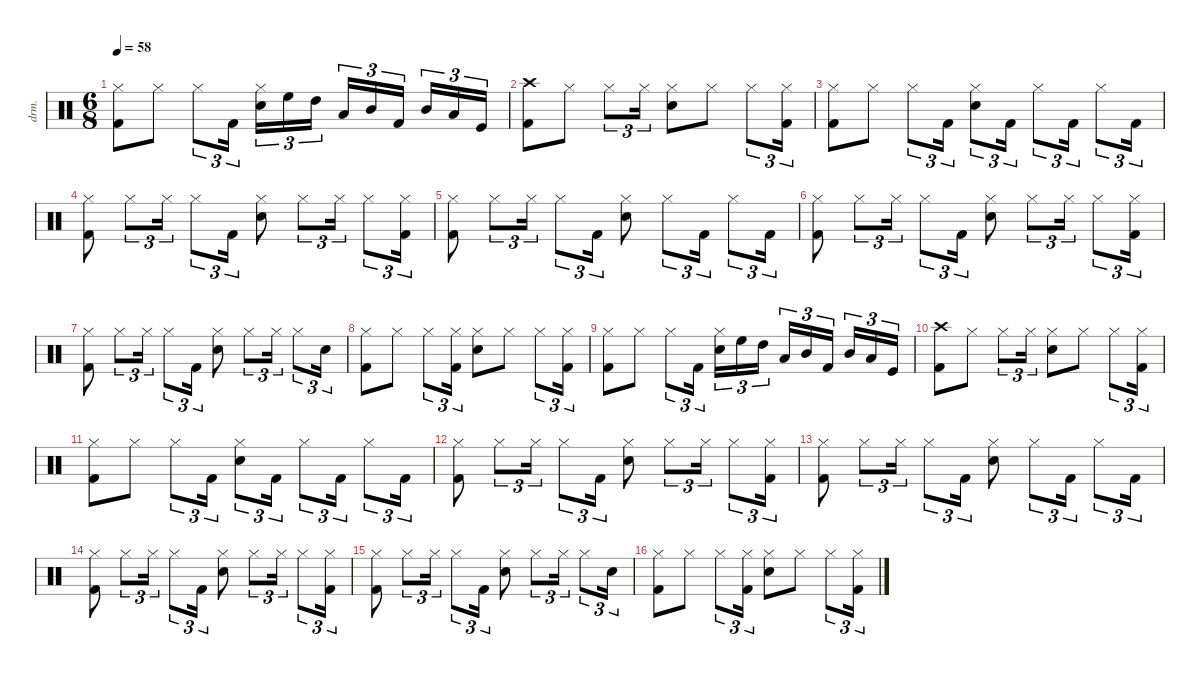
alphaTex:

\defaultSystemsLayout 4
\hideDynamics
\bracketExtendMode nobrackets
\otherSystemsTrackNameOrientation horizontal
\track ("Drums " "drm.") {instrument percussion}
\staff {score}
\articulation defaults
\ts (6 8)
\tempo 58
\clef neutral
\ks c
("Kick (hit) 2" "Hi-Hat (closed)").8{dy f beam Down} "Hi-Hat (closed)".8{dy mf beam Down} "Hi-Hat (closed)".8{tu (3 2) beam Down} "Kick (hit) 2".16{tu (3 2) beam Down} ("Snare (hit) 2" "Hi-Hat (closed)").16{tu (3 2) dy ff beam Down} "High Floor Tom (hit)".16{tu (3 2) beam Down} "High Tom (hit)".16{tu (3 2) dy mp beam Down} "Low Tom (hit)".16{tu (3 2) dy f beam Up} "Mid Tom (hit)".16{tu (3 2) dy ff beam Up} "Kick (hit) 2".16{tu (3 2) dy mp beam Up} "Mid Tom (hit)".16{tu (3 2) dy ff beam Up} "Low Tom (hit)".16{tu (3 2) beam Up} "Kick (hit)".16{tu (3 2) dy f beam Up} |
("Kick (hit) 2" "Crash high (hit)").8{dy ff beam Down} "Hi-Hat (closed)".8{dy mf beam Down} "Hi-Hat (closed)".8{tu (3 2) dy f beam Down} "Hi-Hat (closed)".16{tu (3 2) dy mf beam Down} ("Snare (hit) 2" "Hi-Hat (closed)").8{dy ff beam Down} "Hi-Hat (closed)".8{dy mp beam Down} "Hi-Hat (closed)".8{tu (3 2) dy mf beam Down} ("Kick (hit) 2" "Hi-Hat (closed)").16{tu (3 2) beam Down} |
("Kick (hit) 2" "Hi-Hat (closed)").8{dy f beam Down} "Hi-Hat (closed)".8{dy mf beam Down} "Hi-Hat (closed)".8{tu (3 2) beam Down} "Kick (hit) 2".16{tu (3 2) beam Down} ("Snare (hit) 2" "Hi-Hat (closed)").8{tu (3 2) dy ff beam Down} "Kick (hit) 2".16{tu (3 2) dy mp beam Down} "Hi-Hat (closed)".8{tu (3 2) dy f beam Down} "Kick (hit) 2".16{tu (3 2) dy mp beam Down} "Hi-Hat (closed)".8{tu (3 2) dy ff beam Down} "Kick (hit) 2".16{tu (3 2) dy mp beam Down} |
("Kick (hit) 2" "Hi-Hat (closed)").8{dy ff beam Down} "Hi-Hat (closed)".8{tu (3 2) dy mf beam Down} "Hi-Hat (closed)".16{tu (3 2) beam Down} "Hi-Hat (closed)".8{tu (3 2) beam Down} "Kick (hit) 2".16{tu (3 2) beam Down} ("Snare (hit) 2" "Hi-Hat (closed)").8{dy ff beam Down} "Hi-Hat (closed)".8{tu (3 2) dy f beam Down} "Hi-Hat (closed)".16{tu (3 2) dy mf beam Down} "Hi-Hat (closed)".8{tu (3 2) dy f beam Down} ("Kick (hit) 2" "Hi-Hat (closed)").16{tu (3 2) dy mf beam Down} |
("Kick (hit) 2" "Hi-Hat (closed)").8{dy f beam Down} "Hi-Hat (closed)".8{tu (3 2) beam Down} "Hi-Hat (closed)".16{tu (3 2) dy mf beam Down} "Hi-Hat (closed)".8{tu (3 2) dy f beam Down} "Kick (hit) 2".16{tu (3 2) dy mf beam Down} ("Snare (hit) 2" "Hi-Hat (closed)").8{dy fff beam Down} "Hi-Hat (closed)".8{tu (3 2) dy mp beam Down} "Kick (hit) 2".16{tu (3 2) beam Down} "Hi-Hat (closed)".8{tu (3 2) dy mf beam Down} "Kick (hit) 2".16{tu (3 2) dy mp beam Down} |
("Kick (hit) 2" "Hi-Hat (closed)").8{dy mf beam Down} "Hi-Hat (closed)".8{tu (3 2) dy mp beam Down} "Hi-Hat (closed)".16{tu (3 2) dy mf beam Down} "Hi-Hat (closed)".8{tu (3 2) beam Down} "Kick (hit) 2".16{tu (3 2) dy mp beam Down} ("Snare (hit) 2" "Hi-Hat (closed)").8{dy ff beam Down} "Hi-Hat (closed)".8{tu (3 2) dy mf beam Down} "Hi-Hat (closed)".16{tu (3 2) beam Down} "Hi-Hat (closed)".8{tu (3 2) beam Down} ("Kick (hit) 2" "Hi-Hat (closed)").16{tu (3 2) dy p beam Down} |
("Kick (hit) 2" "Hi-Hat (closed)").8{dy f beam Down} "Hi-Hat (closed)".8{tu (3 2) dy mf beam Down} "Hi-Hat (closed)".16{tu (3 2) dy mp beam Down} "Hi-Hat (closed)".8{tu (3 2) dy mf beam Down} "Kick (hit) 2".16{tu (3 2) dy mp beam Down} ("Snare (hit) 2" "Hi-Hat (closed)").8{dy ff beam Down} "Hi-Hat (closed)".8{tu (3 2) dy mf beam Down} "Hi-Hat (closed)".16{tu (3 2) beam Down} "Hi-Hat (closed)".8{tu (3 2) beam Down} "Snare (hit) 2".16{tu (3 2) dy fff beam Down} |
("Kick (hit) 2" "Hi-Hat (closed)").8{dy ff beam Down} "Hi-Hat (closed)".8{dy mf beam Down} "Hi-Hat (closed)".8{tu (3 2) beam Down} ("Kick (hit) 2" "Hi-Hat (closed)").16{tu (3 2) beam Down} ("Snare (hit) 2" "Hi-Hat (closed)").8{dy ff beam Down} "Hi-Hat (closed)".8{dy mf beam Down} "Hi-Hat (closed)".8{tu (3 2) beam Down} ("Kick (hit) 2" "Hi-Hat (closed)").16{tu (3 2) beam Down} |
("Kick (hit) 2" "Hi-Hat (closed)").8{dy f beam Down} "Hi-Hat (closed)".8{dy mf beam Down} "Hi-Hat (closed)".8{tu (3 2) beam Down} "Kick (hit) 2".16{tu (3 2) beam Down} ("Snare (hit) 2" "Hi-Hat (closed)").16{tu (3 2) dy ff beam Down} "High Floor Tom (hit)".16{tu (3 2) beam Down} "High Tom (hit)".16{tu (3 2) dy mp beam Down} "Low Tom (hit)".16{tu (3 2) dy f beam Up} "Mid Tom (hit)".16{tu (3 2) dy ff beam Up} "Kick (hit) 2".16{tu (3 2) dy mp beam Up} "Mid Tom (hit)".16{tu (3 2) dy ff beam Up} "Low Tom (hit)".16{tu (3 2) beam Up} "Kick (hit)".16{tu (3 2) dy f beam Up} |
("Kick (hit) 2" "Crash high (hit)").8{dy ff beam Down} "Hi-Hat (closed)".8{dy mf beam Down} "Hi-Hat (closed)".8{tu (3 2) dy f beam Down} "Hi-Hat (closed)".16{tu (3 2) dy mf beam Down} ("Snare (hit) 2" "Hi-Hat (closed)").8{dy ff beam Down} "Hi-Hat (closed)".8{dy mp beam Down} "Hi-Hat (closed)".8{tu (3 2) dy mf beam Down} ("Kick (hit) 2" "Hi-Hat (closed)").16{tu (3 2) beam Down} |
("Kick (hit) 2" "Hi-Hat (closed)").8{dy f beam Down} "Hi-Hat (closed)".8{dy mf beam Down} "Hi-Hat (closed)".8{tu (3 2) beam Down} "Kick (hit) 2".16{tu (3 2) beam Down} ("Snare (hit) 2" "Hi-Hat (closed)").8{tu (3 2) dy ff beam Down} "Kick (hit) 2".16{tu (3 2) dy mp beam Down} "Hi-Hat (closed)".8{tu (3 2) dy f beam Down} "Kick (hit) 2".16{tu (3 2) dy mp beam Down} "Hi-Hat (closed)".8{tu (3 2) dy ff beam Down} "Kick (hit) 2".16{tu (3 2) dy mp beam Down} |
("Kick (hit) 2" "Hi-Hat (closed)").8{dy ff beam Down} "Hi-Hat (closed)".8{tu (3 2) dy mf beam Down} "Hi-Hat (closed)".16{tu (3 2) beam Down} "Hi-Hat (closed)".8{tu (3 2) beam Down} "Kick (hit) 2".16{tu (3 2) beam Down} ("Snare (hit) 2" "Hi-Hat (closed)").8{dy ff beam Down} "Hi-Hat (closed)".8{tu (3 2) dy f beam Down} "Hi-Hat (closed)".16{tu (3 2) dy mf beam Down} "Hi-Hat (closed)".8{tu (3 2) dy f beam Down} ("Kick (hit) 2" "Hi-Hat (closed)").16{tu (3 2) dy mf beam Down} |
("Kick (hit) 2" "Hi-Hat (closed)").8{dy f beam Down} "Hi-Hat (closed)".8{tu (3 2) beam Down} "Hi-Hat (closed)".16{tu (3 2) dy mf beam Down} "Hi-Hat (closed)".8{tu (3 2) dy f beam Down} "Kick (hit) 2".16{tu (3 2) dy mf beam Down} ("Snare (hit) 2" "Hi-Hat (closed)").8{dy fff beam Down} "Hi-Hat (closed)".8{tu (3 2) dy mp beam Down} "Kick (hit) 2".16{tu (3 2) beam Down} "Hi-Hat (closed)".8{tu (3 2) dy mf beam Down} "Kick (hit) 2".16{tu (3 2) dy mp beam Down} |
("Kick (hit) 2" "Hi-Hat (closed)").8{dy mf beam Down} "Hi-Hat (closed)".8{tu (3 2) dy mp beam Down} "Hi-Hat (closed)".16{tu (3 2) dy mf beam Down} "Hi-Hat (closed)".8{tu (3 2) beam Down} "Kick (hit) 2".16{tu (3 2) dy mp beam Down} ("Snare (hit) 2" "Hi-Hat (closed)").8{dy ff beam Down} "Hi-Hat (closed)".8{tu (3 2) dy mf beam Down} "Hi-Hat (closed)".16{tu (3 2) beam Down} "Hi-Hat (closed)".8{tu (3 2) beam Down} ("Kick (hit) 2" "Hi-Hat (closed)").16{tu (3 2) dy p beam Down} |
("Kick (hit) 2" "Hi-Hat (closed)").8{dy f beam Down} "Hi-Hat (closed)".8{tu (3 2) dy mf beam Down} "Hi-Hat (closed)".16{tu (3 2) dy mp beam Down} "Hi-Hat (closed)".8{tu (3 2) dy mf beam Down} "Kick (hit) 2".16{tu (3 2) dy mp beam Down} ("Snare (hit) 2" "Hi-Hat (closed)").8{dy ff beam Down} "Hi-Hat (closed)".8{tu (3 2) dy mf beam Down} "Hi-Hat (closed)".16{tu (3 2) beam Down} "Hi-Hat (closed)".8{tu (3 2) beam Down} "Snare (hit) 2".16{tu (3 2) dy fff beam Down} |
("Kick (hit) 2" "Hi-Hat (closed)").8{dy ff beam Down} "Hi-Hat (closed)".8{dy mf beam Down} "Hi-Hat (closed)".8{tu (3 2) beam Down} ("Kick (hit) 2" "Hi-Hat (closed)").16{tu (3 2) beam Down} ("Snare (hit) 2" "Hi-Hat (closed)").8{dy ff beam Down} "Hi-Hat (closed)".8{dy mf beam Down} "Hi-Hat (closed)".8{tu (3 2) beam Down} ("Kick (hit) 2" "Hi-Hat (closed)").16{tu (3 2) beam Down}
